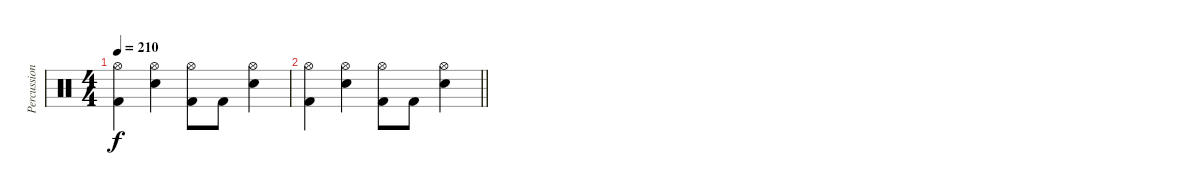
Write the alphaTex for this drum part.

\track ("Percussion" "Percussion") {instrument percussion}
\staff {score}
\articulation defaults
\ts (4 4)
\tempo 210
\clef neutral
\ks c
("Kick (hit) 2" "Hi-Hat (open)").4{dy f} ("Electric Snare (hit)" "Hi-Hat (open)").4 ("Kick (hit) 2" "Hi-Hat (open)").8 "Kick (hit) 2".8 ("Electric Snare (hit)" "Hi-Hat (open)").4 |
\barLineRight lightlight
("Kick (hit) 2" "Hi-Hat (open)").4 ("Electric Snare (hit)" "Hi-Hat (open)").4 ("Kick (hit) 2" "Hi-Hat (open)").8 "Kick (hit) 2".8 ("Electric Snare (hit)" "Hi-Hat (open)").4
